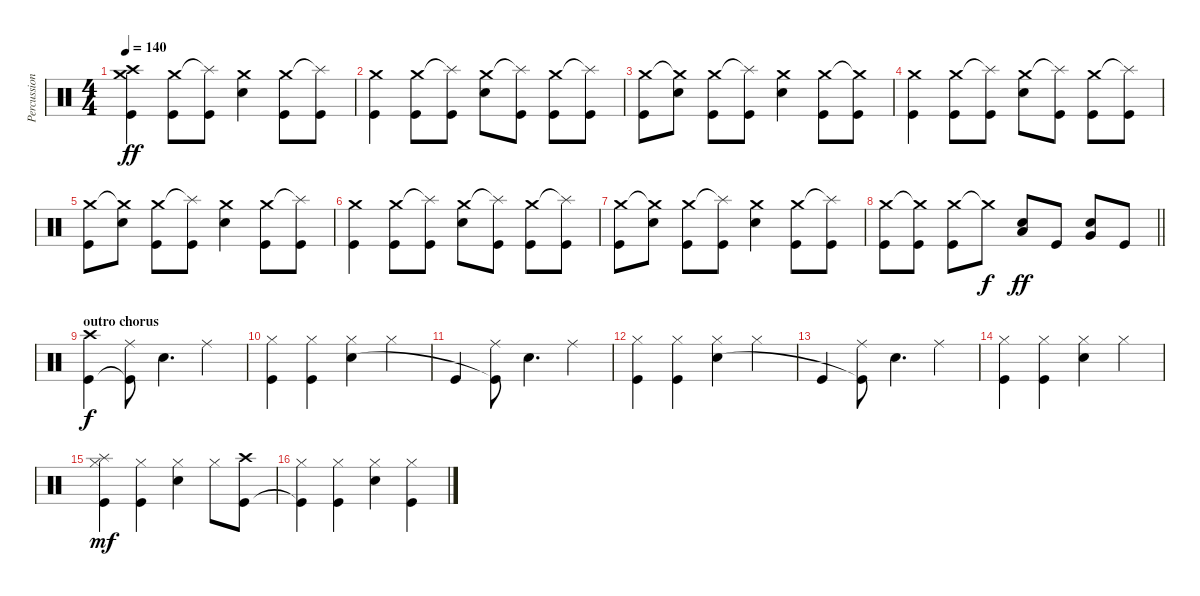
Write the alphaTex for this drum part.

\track ("Percussion" "Percussion") {instrument percussion}
\staff {score}
\articulation defaults
\ts (4 4)
\tempo 140
\clef neutral
\ks c
("Crash high (hit)" "Crash medium (hit)" "Kick (hit)").4{dy ff} ("Crash medium (hit)" "Kick (hit)").8 ("Splash (hit)"{t} "Kick (hit)").8 ("Crash medium (hit)" "Electric Snare (hit)").4 ("Crash medium (hit)" "Kick (hit)").8 ("Splash (hit)"{t} "Kick (hit)").8 |
("Crash medium (hit)" "Kick (hit)").4 ("Crash medium (hit)" "Kick (hit)").8 ("Splash (hit)"{t} "Kick (hit)").8 ("Crash medium (hit)" "Electric Snare (hit)").8 ("Splash (hit)"{t} "Kick (hit)").8 ("Crash medium (hit)" "Kick (hit)").8 ("Splash (hit)"{t} "Kick (hit)").8 |
("Crash medium (hit)" "Kick (hit)").8 ("Crash medium (hit)"{t} "Electric Snare (hit)").8 ("Crash medium (hit)" "Kick (hit)").8 ("Splash (hit)"{t} "Kick (hit)").8 ("Crash medium (hit)" "Electric Snare (hit)").4 ("Crash medium (hit)" "Kick (hit)").8 ("Crash medium (hit)"{t} "Kick (hit)").8 |
("Crash medium (hit)" "Kick (hit)").4 ("Crash medium (hit)" "Kick (hit)").8 ("Splash (hit)"{t} "Kick (hit)").8 ("Crash medium (hit)" "Electric Snare (hit)").8 ("Splash (hit)"{t} "Kick (hit)").8 ("Crash medium (hit)" "Kick (hit)").8 ("Splash (hit)"{t} "Kick (hit)").8 |
("Crash medium (hit)" "Kick (hit)").8 ("Crash medium (hit)"{t} "Electric Snare (hit)").8 ("Crash medium (hit)" "Kick (hit)").8 ("Splash (hit)"{t} "Kick (hit)").8 ("Crash medium (hit)" "Electric Snare (hit)").4 ("Crash medium (hit)" "Kick (hit)").8 ("Splash (hit)"{t} "Kick (hit)").8 |
("Crash medium (hit)" "Kick (hit)").4 ("Crash medium (hit)" "Kick (hit)").8 ("Splash (hit)"{t} "Kick (hit)").8 ("Crash medium (hit)" "Electric Snare (hit)").8 ("Splash (hit)"{t} "Kick (hit)").8 ("Crash medium (hit)" "Kick (hit)").8 ("Splash (hit)"{t} "Kick (hit)").8 |
("Crash medium (hit)" "Kick (hit)").8 ("Crash medium (hit)"{t} "Electric Snare (hit)").8 ("Crash medium (hit)" "Kick (hit)").8 ("Splash (hit)"{t} "Kick (hit)").8 ("Crash medium (hit)" "Electric Snare (hit)").4 ("Crash medium (hit)" "Kick (hit)").8 ("Splash (hit)"{t} "Kick (hit)").8 |
\barLineRight lightlight
("Crash medium (hit)" "Kick (hit)").8 ("Crash medium (hit)"{t} "Kick (hit)").8 ("Crash medium (hit)" "Kick (hit)").8 "Crash medium (hit)"{t}.8{dy f} ("Electric Snare (hit)" "Low Tom (hit)").8{dy ff} "Kick (hit)".8 ("Electric Snare (hit)" "Very Low Tom (hit)").8 "Kick (hit)".8 |
\section ("" "outro chorus")
("Crash high (hit)" "Kick (hit)").4{dy f} ("Ride (middle)" "Kick (hit)"{t}).8 "Electric Snare (hit)".4{d} "Ride (middle)".4 |
("Hi-Hat (closed)" "Kick (hit)").4 ("Hi-Hat (closed)" "Kick (hit)").4 ("Hi-Hat (closed)" "Electric Snare (hit)").4 "Hi-Hat (closed)".4 |
"Kick (hit)".4 ("Ride (middle)" "Kick (hit)"{t}).8 "Electric Snare (hit)".4{d} "Ride (middle)".4 |
("Hi-Hat (closed)" "Kick (hit)").4 ("Hi-Hat (closed)" "Kick (hit)").4 ("Hi-Hat (closed)" "Electric Snare (hit)").4 "Hi-Hat (closed)".4 |
"Kick (hit)".4 ("Ride (middle)" "Kick (hit)"{t}).8 "Electric Snare (hit)".4{d} "Ride (middle)".4 |
("Hi-Hat (closed)" "Kick (hit)").4 ("Hi-Hat (closed)" "Kick (hit)").4 ("Hi-Hat (closed)" "Electric Snare (hit)").4 "Hi-Hat (closed)".4 |
("Splash (hit)" "Hi-Hat (closed)" "Kick (hit)").4{dy mf} ("Hi-Hat (closed)" "Kick (hit)").4 ("Hi-Hat (closed)" "Electric Snare (hit)").4 "Hi-Hat (closed)".8 ("Crash high (hit)" "Kick (hit)").8 |
("Hi-Hat (closed)" "Kick (hit)"{t}).4 ("Hi-Hat (closed)" "Kick (hit)").4 ("Hi-Hat (closed)" "Electric Snare (hit)").4 ("Hi-Hat (closed)" "Kick (hit)").4
